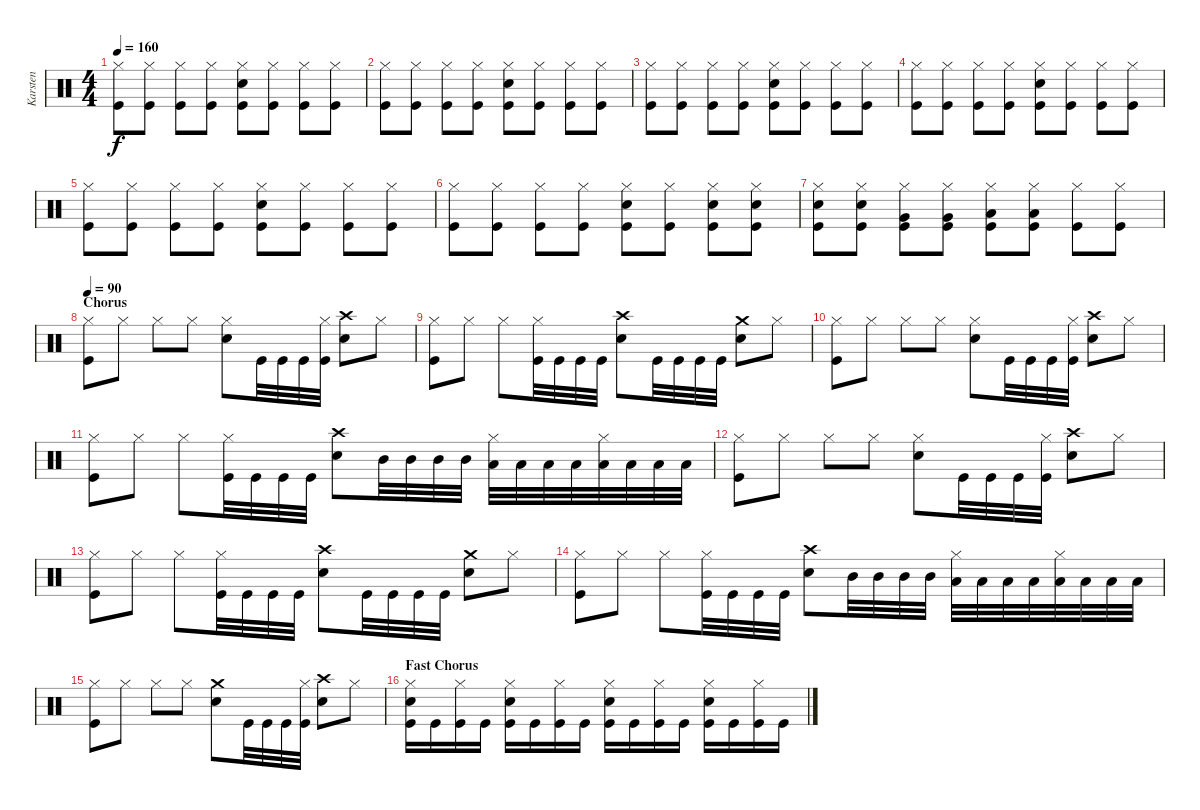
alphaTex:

\track ("Karsten" "Karsten") {instrument percussion}
\staff {score}
\articulation defaults
\ts (4 4)
\tempo 160
\clef neutral
\ks c
("Hi-Hat (closed)" "Kick (hit)").8{dy f} ("Hi-Hat (closed)" "Kick (hit)").8 ("Hi-Hat (closed)" "Kick (hit)").8 ("Hi-Hat (closed)" "Kick (hit)").8 ("Hi-Hat (closed)" "Snare (hit) 2" "Kick (hit)").8 ("Hi-Hat (closed)" "Kick (hit)").8 ("Hi-Hat (closed)" "Kick (hit)").8 ("Hi-Hat (closed)" "Kick (hit)").8 |
("Hi-Hat (closed)" "Kick (hit)").8 ("Hi-Hat (closed)" "Kick (hit)").8 ("Hi-Hat (closed)" "Kick (hit)").8 ("Hi-Hat (closed)" "Kick (hit)").8 ("Hi-Hat (closed)" "Snare (hit) 2" "Kick (hit)").8 ("Hi-Hat (closed)" "Kick (hit)").8 ("Hi-Hat (closed)" "Kick (hit)").8 ("Hi-Hat (closed)" "Kick (hit)").8 |
("Hi-Hat (closed)" "Kick (hit)").8 ("Hi-Hat (closed)" "Kick (hit)").8 ("Hi-Hat (closed)" "Kick (hit)").8 ("Hi-Hat (closed)" "Kick (hit)").8 ("Hi-Hat (closed)" "Snare (hit) 2" "Kick (hit)").8 ("Hi-Hat (closed)" "Kick (hit)").8 ("Hi-Hat (closed)" "Kick (hit)").8 ("Hi-Hat (closed)" "Kick (hit)").8 |
("Hi-Hat (closed)" "Kick (hit)").8 ("Hi-Hat (closed)" "Kick (hit)").8 ("Hi-Hat (closed)" "Kick (hit)").8 ("Hi-Hat (closed)" "Kick (hit)").8 ("Hi-Hat (closed)" "Snare (hit) 2" "Kick (hit)").8 ("Hi-Hat (closed)" "Kick (hit)").8 ("Hi-Hat (closed)" "Kick (hit)").8 ("Hi-Hat (closed)" "Kick (hit)").8 |
("Hi-Hat (closed)" "Kick (hit)").8 ("Hi-Hat (closed)" "Kick (hit)").8 ("Hi-Hat (closed)" "Kick (hit)").8 ("Hi-Hat (closed)" "Kick (hit)").8 ("Hi-Hat (closed)" "Snare (hit) 2" "Kick (hit)").8 ("Hi-Hat (closed)" "Kick (hit)").8 ("Hi-Hat (closed)" "Kick (hit)").8 ("Hi-Hat (closed)" "Kick (hit)").8 |
("Hi-Hat (closed)" "Kick (hit)").8 ("Hi-Hat (closed)" "Kick (hit)").8 ("Hi-Hat (closed)" "Kick (hit)").8 ("Hi-Hat (closed)" "Kick (hit)").8 ("Hi-Hat (closed)" "Snare (hit) 2" "Kick (hit)").8 ("Hi-Hat (closed)" "Kick (hit)").8 ("Hi-Hat (closed)" "Snare (hit) 2" "Kick (hit)").8 ("Hi-Hat (closed)" "Snare (hit) 2" "Kick (hit)").8 |
("Hi-Hat (closed)" "Snare (hit) 2" "Kick (hit)").8 ("Hi-Hat (closed)" "Snare (hit) 2" "Kick (hit)").8 ("Hi-Hat (closed)" "Very Low Tom (hit)" "Kick (hit)").8 ("Hi-Hat (closed)" "Very Low Tom (hit)" "Kick (hit)").8 ("Hi-Hat (closed)" "Low Floor Tom (hit)" "Kick (hit)").8 ("Hi-Hat (closed)" "Low Floor Tom (hit)" "Kick (hit)").8 ("Hi-Hat (closed)" "Kick (hit)").8 ("Hi-Hat (closed)" "Kick (hit)").8 |
\section ("" "Chorus")
\tempo 90
("Hi-Hat (closed)" "Kick (hit)").8 "Hi-Hat (closed)".8 "Hi-Hat (closed)".8 "Hi-Hat (closed)".8 ("Hi-Hat (closed)" "Snare (hit) 2").8 "Kick (hit)".32 "Kick (hit)".32 "Kick (hit)".32 ("Hi-Hat (closed)" "Kick (hit)").32 ("Crash high (hit)" "Snare (hit) 2").8 "Hi-Hat (closed)".8 |
("Hi-Hat (closed)" "Kick (hit)").8 "Hi-Hat (closed)".8 "Hi-Hat (closed)".8 ("Hi-Hat (closed)" "Kick (hit)").32 "Kick (hit)".32 "Kick (hit)".32 "Kick (hit)".32 ("Crash high (hit)" "Snare (hit) 2").8 "Kick (hit)".32 "Kick (hit)".32 "Kick (hit)".32 "Kick (hit)".32 ("Crash medium (hit)" "Snare (hit) 2").8 "Hi-Hat (closed)".8 |
("Hi-Hat (closed)" "Kick (hit)").8 "Hi-Hat (closed)".8 "Hi-Hat (closed)".8 "Hi-Hat (closed)".8 ("Hi-Hat (closed)" "Snare (hit) 2").8 "Kick (hit)".32 "Kick (hit)".32 "Kick (hit)".32 ("Hi-Hat (closed)" "Kick (hit)").32 ("Crash high (hit)" "Snare (hit) 2").8 "Hi-Hat (closed)".8 |
("Hi-Hat (closed)" "Kick (hit)").8 "Hi-Hat (closed)".8 "Hi-Hat (closed)".8 ("Hi-Hat (closed)" "Kick (hit)").32 "Kick (hit)".32 "Kick (hit)".32 "Kick (hit)".32 ("Crash high (hit)" "Snare (hit) 2").8 "Mid Tom (hit)".32 "Mid Tom (hit)".32 "Mid Tom (hit)".32 "Mid Tom (hit)".32 ("Hi-Hat (closed)" "Low Tom (hit)").32 "Low Tom (hit)".32 "Low Tom (hit)".32 "Low Tom (hit)".32 ("Hi-Hat (closed)" "Low Floor Tom (hit)").32 "Low Floor Tom (hit)".32 "Low Floor Tom (hit)".32 "Low Floor Tom (hit)".32 |
("Hi-Hat (closed)" "Kick (hit)").8 "Hi-Hat (closed)".8 "Hi-Hat (closed)".8 "Hi-Hat (closed)".8 ("Hi-Hat (closed)" "Snare (hit) 2").8 "Kick (hit)".32 "Kick (hit)".32 "Kick (hit)".32 ("Hi-Hat (closed)" "Kick (hit)").32 ("Crash high (hit)" "Snare (hit) 2").8 "Hi-Hat (closed)".8 |
("Hi-Hat (closed)" "Kick (hit)").8 "Hi-Hat (closed)".8 "Hi-Hat (closed)".8 ("Hi-Hat (closed)" "Kick (hit)").32 "Kick (hit)".32 "Kick (hit)".32 "Kick (hit)".32 ("Crash high (hit)" "Snare (hit) 2").8 "Kick (hit)".32 "Kick (hit)".32 "Kick (hit)".32 "Kick (hit)".32 ("Crash medium (hit)" "Snare (hit) 2").8 "Hi-Hat (closed)".8 |
("Hi-Hat (closed)" "Kick (hit)").8 "Hi-Hat (closed)".8 "Hi-Hat (closed)".8 ("Hi-Hat (closed)" "Kick (hit)").32 "Kick (hit)".32 "Kick (hit)".32 "Kick (hit)".32 ("Crash high (hit)" "Snare (hit) 2").8 "Mid Tom (hit)".32 "Mid Tom (hit)".32 "Mid Tom (hit)".32 "Mid Tom (hit)".32 ("Hi-Hat (closed)" "Low Tom (hit)").32 "Low Tom (hit)".32 "Low Tom (hit)".32 "Low Tom (hit)".32 ("Hi-Hat (closed)" "Low Floor Tom (hit)").32 "Low Floor Tom (hit)".32 "Low Floor Tom (hit)".32 "Low Floor Tom (hit)".32 |
("Hi-Hat (closed)" "Kick (hit)").8 "Hi-Hat (closed)".8 "Hi-Hat (closed)".8 "Hi-Hat (closed)".8 ("Crash medium (hit)" "Snare (hit) 2").8 "Kick (hit)".32 "Kick (hit)".32 "Kick (hit)".32 ("Hi-Hat (closed)" "Kick (hit)").32 ("Crash high (hit)" "Snare (hit) 2").8 "Hi-Hat (closed)".8 |
\section ("" "Fast Chorus")
("Hi-Hat (closed)" "Snare (hit) 2" "Kick (hit)").16 "Kick (hit)".16 ("Hi-Hat (closed)" "Kick (hit)").16 "Kick (hit)".16 ("Hi-Hat (closed)" "Snare (hit) 2" "Kick (hit)").16 "Kick (hit)".16 ("Hi-Hat (closed)" "Kick (hit)").16 "Kick (hit)".16 ("Hi-Hat (closed)" "Snare (hit) 2" "Kick (hit)").16 "Kick (hit)".16 ("Hi-Hat (closed)" "Kick (hit)").16 "Kick (hit)".16 ("Hi-Hat (closed)" "Snare (hit) 2" "Kick (hit)").16 "Kick (hit)".16 ("Hi-Hat (closed)" "Kick (hit)").16 "Kick (hit)".16
